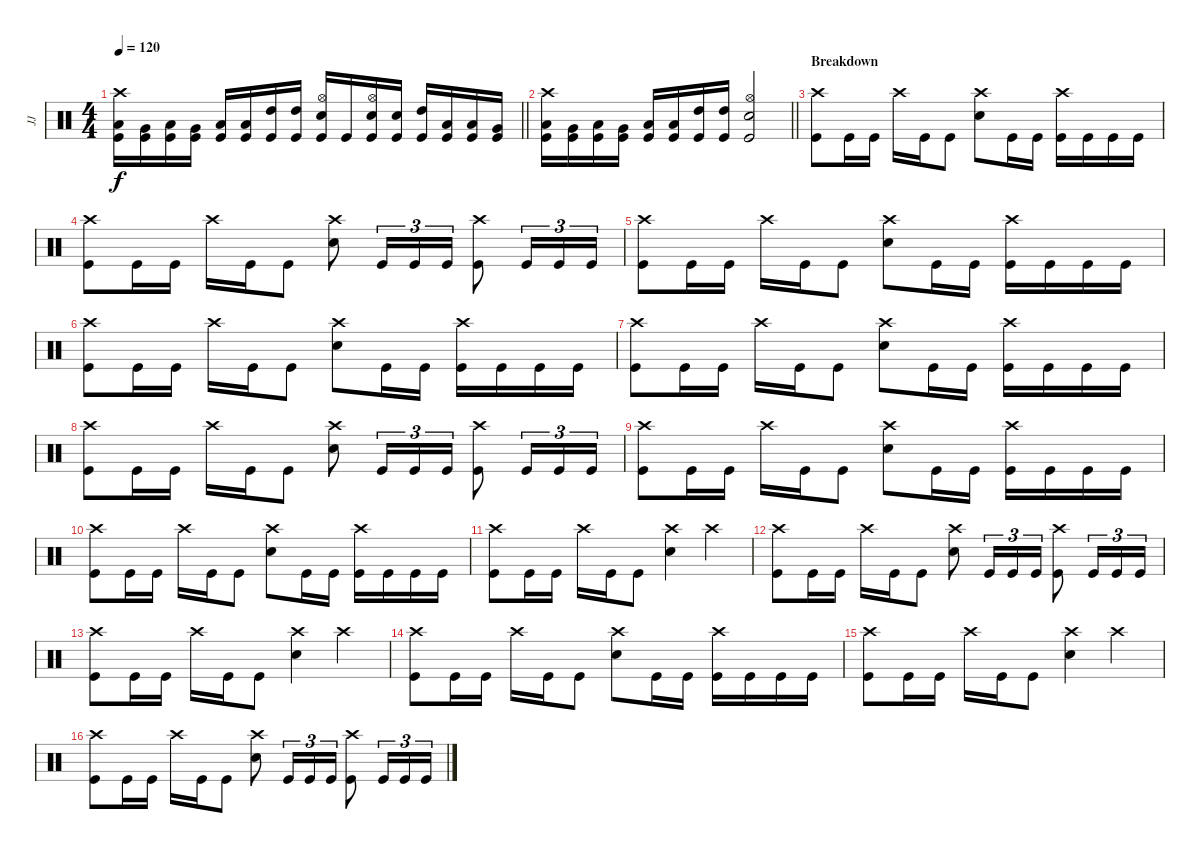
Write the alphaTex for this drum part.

\track ("JJ" "JJ") {instrument percussion}
\staff {score}
\articulation defaults
\ts (4 4)
\tempo 120
\clef neutral
\barLineRight lightlight
\ks c
("Crash high (hit)" "Low Floor Tom (hit)" "Kick (hit)").16{dy f} ("Very Low Tom (hit)" "Kick (hit)").16 ("Low Floor Tom (hit)" "Kick (hit)").16 ("Very Low Tom (hit)" "Kick (hit)").16 ("Low Tom (hit)" "Kick (hit)").16 ("Low Tom (hit)" "Kick (hit)").16 ("High Tom (hit)" "Kick (hit)").16 ("High Tom (hit)" "Kick (hit)").16 ("Hi-Hat (open)" "Electric Snare (hit)" "Kick (hit)").16 "Kick (hit)".16 ("Hi-Hat (open)" "Electric Snare (hit)" "Kick (hit)").16 ("Electric Snare (hit)" "Kick (hit)").16 ("High Tom (hit)" "Kick (hit)").16 ("Low Tom (hit)" "Kick (hit)").16 ("Low Floor Tom (hit)" "Kick (hit)").16 ("Very Low Tom (hit)" "Kick (hit)").16 |
\barLineRight lightlight
("Crash high (hit)" "Low Floor Tom (hit)" "Kick (hit)").16 ("Very Low Tom (hit)" "Kick (hit)").16 ("Low Floor Tom (hit)" "Kick (hit)").16 ("Very Low Tom (hit)" "Kick (hit)").16 ("Low Tom (hit)" "Kick (hit)").16 ("Low Tom (hit)" "Kick (hit)").16 ("High Tom (hit)" "Kick (hit)").16 ("High Tom (hit)" "Kick (hit)").16 ("Hi-Hat (open)" "Electric Snare (hit)" "Kick (hit)").2 |
\section ("" "Breakdown")
("Crash high (hit)" "Kick (hit)").8 "Kick (hit)".16 "Kick (hit)".16 "Crash high (hit)".16 "Kick (hit)".16 "Kick (hit)".8 ("Crash high (hit)" "Electric Snare (hit)").8 "Kick (hit)".16 "Kick (hit)".16 ("Crash high (hit)" "Kick (hit)").16 "Kick (hit)".16 "Kick (hit)".16 "Kick (hit)".16 |
("Crash high (hit)" "Kick (hit)").8 "Kick (hit)".16 "Kick (hit)".16 "Crash high (hit)".16 "Kick (hit)".16 "Kick (hit)".8 ("Crash high (hit)" "Electric Snare (hit)").8 "Kick (hit)".16{tu (3 2)} "Kick (hit)".16{tu (3 2)} "Kick (hit)".16{tu (3 2)} ("Crash high (hit)" "Kick (hit)").8 "Kick (hit)".16{tu (3 2)} "Kick (hit)".16{tu (3 2)} "Kick (hit)".16{tu (3 2)} |
("Crash high (hit)" "Kick (hit)").8 "Kick (hit)".16 "Kick (hit)".16 "Crash high (hit)".16 "Kick (hit)".16 "Kick (hit)".8 ("Crash high (hit)" "Electric Snare (hit)").8 "Kick (hit)".16 "Kick (hit)".16 ("Crash high (hit)" "Kick (hit)").16 "Kick (hit)".16 "Kick (hit)".16 "Kick (hit)".16 |
("Crash high (hit)" "Kick (hit)").8 "Kick (hit)".16 "Kick (hit)".16 "Crash high (hit)".16 "Kick (hit)".16 "Kick (hit)".8 ("Crash high (hit)" "Electric Snare (hit)").8 "Kick (hit)".16 "Kick (hit)".16 ("Crash high (hit)" "Kick (hit)").16 "Kick (hit)".16 "Kick (hit)".16 "Kick (hit)".16 |
("Crash high (hit)" "Kick (hit)").8 "Kick (hit)".16 "Kick (hit)".16 "Crash high (hit)".16 "Kick (hit)".16 "Kick (hit)".8 ("Crash high (hit)" "Electric Snare (hit)").8 "Kick (hit)".16 "Kick (hit)".16 ("Crash high (hit)" "Kick (hit)").16 "Kick (hit)".16 "Kick (hit)".16 "Kick (hit)".16 |
("Crash high (hit)" "Kick (hit)").8 "Kick (hit)".16 "Kick (hit)".16 "Crash high (hit)".16 "Kick (hit)".16 "Kick (hit)".8 ("Crash high (hit)" "Electric Snare (hit)").8 "Kick (hit)".16{tu (3 2)} "Kick (hit)".16{tu (3 2)} "Kick (hit)".16{tu (3 2)} ("Crash high (hit)" "Kick (hit)").8 "Kick (hit)".16{tu (3 2)} "Kick (hit)".16{tu (3 2)} "Kick (hit)".16{tu (3 2)} |
("Crash high (hit)" "Kick (hit)").8 "Kick (hit)".16 "Kick (hit)".16 "Crash high (hit)".16 "Kick (hit)".16 "Kick (hit)".8 ("Crash high (hit)" "Electric Snare (hit)").8 "Kick (hit)".16 "Kick (hit)".16 ("Crash high (hit)" "Kick (hit)").16 "Kick (hit)".16 "Kick (hit)".16 "Kick (hit)".16 |
("Crash high (hit)" "Kick (hit)").8 "Kick (hit)".16 "Kick (hit)".16 "Crash high (hit)".16 "Kick (hit)".16 "Kick (hit)".8 ("Crash high (hit)" "Electric Snare (hit)").8 "Kick (hit)".16 "Kick (hit)".16 ("Crash high (hit)" "Kick (hit)").16 "Kick (hit)".16 "Kick (hit)".16 "Kick (hit)".16 |
("Crash high (hit)" "Kick (hit)").8 "Kick (hit)".16 "Kick (hit)".16 "Crash high (hit)".16 "Kick (hit)".16 "Kick (hit)".8 ("Crash high (hit)" "Electric Snare (hit)").4 "Crash high (hit)".4 |
("Crash high (hit)" "Kick (hit)").8 "Kick (hit)".16 "Kick (hit)".16 "Crash high (hit)".16 "Kick (hit)".16 "Kick (hit)".8 ("Crash high (hit)" "Electric Snare (hit)").8 "Kick (hit)".16{tu (3 2)} "Kick (hit)".16{tu (3 2)} "Kick (hit)".16{tu (3 2)} ("Crash high (hit)" "Kick (hit)").8 "Kick (hit)".16{tu (3 2)} "Kick (hit)".16{tu (3 2)} "Kick (hit)".16{tu (3 2)} |
("Crash high (hit)" "Kick (hit)").8 "Kick (hit)".16 "Kick (hit)".16 "Crash high (hit)".16 "Kick (hit)".16 "Kick (hit)".8 ("Crash high (hit)" "Electric Snare (hit)").4 "Crash high (hit)".4 |
("Crash high (hit)" "Kick (hit)").8 "Kick (hit)".16 "Kick (hit)".16 "Crash high (hit)".16 "Kick (hit)".16 "Kick (hit)".8 ("Crash high (hit)" "Electric Snare (hit)").8 "Kick (hit)".16 "Kick (hit)".16 ("Crash high (hit)" "Kick (hit)").16 "Kick (hit)".16 "Kick (hit)".16 "Kick (hit)".16 |
("Crash high (hit)" "Kick (hit)").8 "Kick (hit)".16 "Kick (hit)".16 "Crash high (hit)".16 "Kick (hit)".16 "Kick (hit)".8 ("Crash high (hit)" "Electric Snare (hit)").4 "Crash high (hit)".4 |
("Crash high (hit)" "Kick (hit)").8 "Kick (hit)".16 "Kick (hit)".16 "Crash high (hit)".16 "Kick (hit)".16 "Kick (hit)".8 ("Crash high (hit)" "Electric Snare (hit)").8 "Kick (hit)".16{tu (3 2)} "Kick (hit)".16{tu (3 2)} "Kick (hit)".16{tu (3 2)} ("Crash high (hit)" "Kick (hit)").8 "Kick (hit)".16{tu (3 2)} "Kick (hit)".16{tu (3 2)} "Kick (hit)".16{tu (3 2)}
